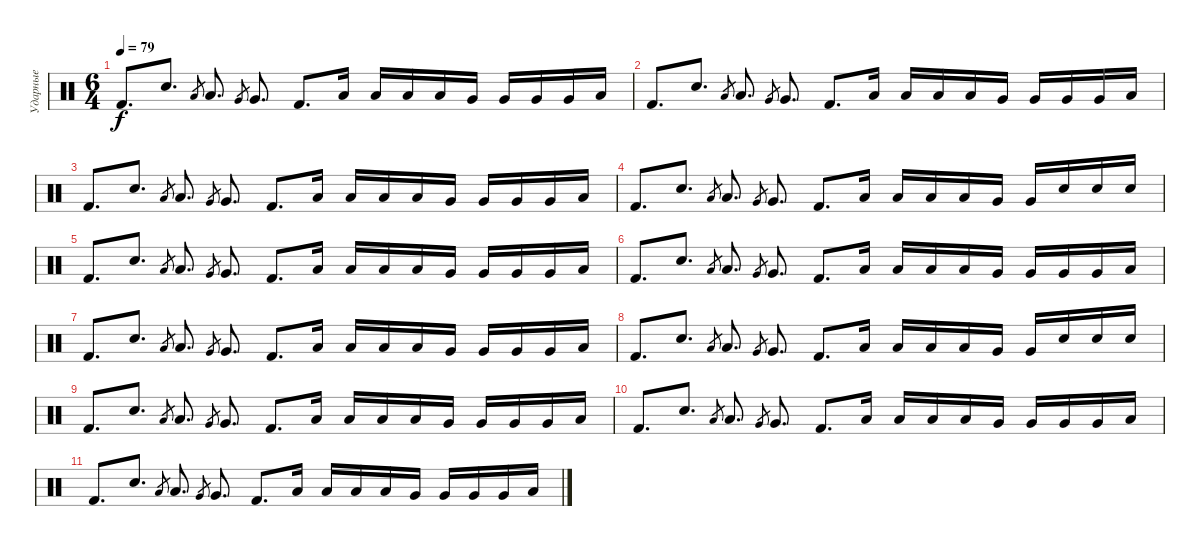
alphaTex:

\track ("Ударные" "Ударные") {instrument percussion}
\staff {score}
\articulation defaults
\ts (6 4)
\tempo 79
\clef neutral
\ks c "Kick (hit) 2".8{d dy f} "Electric Snare (hit)".8{d} "Low Tom (hit)".8{gr} "Low Tom (hit)".8{d} "Very Low Tom (hit)".8{gr} "Very Low Tom (hit)".8{d} "Kick (hit) 2".8{d} "Low Tom (hit)".16 "Low Tom (hit)".16 "Low Tom (hit)".16 "Low Tom (hit)".16 "Very Low Tom (hit)".16 "Very Low Tom (hit)".16 "Very Low Tom (hit)".16 "Very Low Tom (hit)".16 "Low Floor Tom (hit)".16
|
"Kick (hit) 2".8{d} "Electric Snare (hit)".8{d} "Low Tom (hit)".8{gr} "Low Tom (hit)".8{d} "Very Low Tom (hit)".8{gr} "Very Low Tom (hit)".8{d} "Kick (hit) 2".8{d} "Low Tom (hit)".16 "Low Tom (hit)".16 "Low Tom (hit)".16 "Low Tom (hit)".16 "Very Low Tom (hit)".16 "Very Low Tom (hit)".16 "Very Low Tom (hit)".16 "Very Low Tom (hit)".16 "Low Floor Tom (hit)".16 |
"Kick (hit) 2".8{d} "Electric Snare (hit)".8{d} "Low Tom (hit)".8{gr} "Low Tom (hit)".8{d} "Very Low Tom (hit)".8{gr} "Very Low Tom (hit)".8{d} "Kick (hit) 2".8{d} "Low Tom (hit)".16 "Low Tom (hit)".16 "Low Tom (hit)".16 "Low Tom (hit)".16 "Very Low Tom (hit)".16 "Very Low Tom (hit)".16 "Very Low Tom (hit)".16 "Very Low Tom (hit)".16 "Low Floor Tom (hit)".16 |
"Kick (hit) 2".8{d} "Electric Snare (hit)".8{d} "Low Tom (hit)".8{gr} "Low Tom (hit)".8{d} "Very Low Tom (hit)".8{gr} "Very Low Tom (hit)".8{d} "Kick (hit) 2".8{d} "Low Tom (hit)".16 "Low Tom (hit)".16 "Low Tom (hit)".16 "Low Tom (hit)".16 "Very Low Tom (hit)".16 "Very Low Tom (hit)".16 "Electric Snare (hit)".16 "Electric Snare (hit)".16 "Electric Snare (hit)".16 |
"Kick (hit) 2".8{d} "Electric Snare (hit)".8{d} "Low Tom (hit)".8{gr} "Low Tom (hit)".8{d} "Very Low Tom (hit)".8{gr} "Very Low Tom (hit)".8{d} "Kick (hit) 2".8{d} "Low Tom (hit)".16 "Low Tom (hit)".16 "Low Tom (hit)".16 "Low Tom (hit)".16 "Very Low Tom (hit)".16 "Very Low Tom (hit)".16 "Very Low Tom (hit)".16 "Very Low Tom (hit)".16 "Low Floor Tom (hit)".16 |
"Kick (hit) 2".8{d} "Electric Snare (hit)".8{d} "Low Tom (hit)".8{gr} "Low Tom (hit)".8{d} "Very Low Tom (hit)".8{gr} "Very Low Tom (hit)".8{d} "Kick (hit) 2".8{d} "Low Tom (hit)".16 "Low Tom (hit)".16 "Low Tom (hit)".16 "Low Tom (hit)".16 "Very Low Tom (hit)".16 "Very Low Tom (hit)".16 "Very Low Tom (hit)".16 "Very Low Tom (hit)".16 "Low Floor Tom (hit)".16 |
"Kick (hit) 2".8{d} "Electric Snare (hit)".8{d} "Low Tom (hit)".8{gr} "Low Tom (hit)".8{d} "Very Low Tom (hit)".8{gr} "Very Low Tom (hit)".8{d} "Kick (hit) 2".8{d} "Low Tom (hit)".16 "Low Tom (hit)".16 "Low Tom (hit)".16 "Low Tom (hit)".16 "Very Low Tom (hit)".16 "Very Low Tom (hit)".16 "Very Low Tom (hit)".16 "Very Low Tom (hit)".16 "Low Floor Tom (hit)".16 |
"Kick (hit) 2".8{d} "Electric Snare (hit)".8{d} "Low Tom (hit)".8{gr} "Low Tom (hit)".8{d} "Very Low Tom (hit)".8{gr} "Very Low Tom (hit)".8{d} "Kick (hit) 2".8{d} "Low Tom (hit)".16 "Low Tom (hit)".16 "Low Tom (hit)".16 "Low Tom (hit)".16 "Very Low Tom (hit)".16 "Very Low Tom (hit)".16 "Electric Snare (hit)".16 "Electric Snare (hit)".16 "Electric Snare (hit)".16 |
"Kick (hit) 2".8{d} "Electric Snare (hit)".8{d} "Low Tom (hit)".8{gr} "Low Tom (hit)".8{d} "Very Low Tom (hit)".8{gr} "Very Low Tom (hit)".8{d} "Kick (hit) 2".8{d} "Low Tom (hit)".16 "Low Tom (hit)".16 "Low Tom (hit)".16 "Low Tom (hit)".16 "Very Low Tom (hit)".16 "Very Low Tom (hit)".16 "Very Low Tom (hit)".16 "Very Low Tom (hit)".16 "Low Floor Tom (hit)".16 |
"Kick (hit) 2".8{d} "Electric Snare (hit)".8{d} "Low Tom (hit)".8{gr} "Low Tom (hit)".8{d} "Very Low Tom (hit)".8{gr} "Very Low Tom (hit)".8{d} "Kick (hit) 2".8{d} "Low Tom (hit)".16 "Low Tom (hit)".16 "Low Tom (hit)".16 "Low Tom (hit)".16 "Very Low Tom (hit)".16 "Very Low Tom (hit)".16 "Very Low Tom (hit)".16 "Very Low Tom (hit)".16 "Low Floor Tom (hit)".16 |
"Kick (hit) 2".8{d} "Electric Snare (hit)".8{d} "Low Tom (hit)".8{gr} "Low Tom (hit)".8{d} "Very Low Tom (hit)".8{gr} "Very Low Tom (hit)".8{d} "Kick (hit) 2".8{d} "Low Tom (hit)".16 "Low Tom (hit)".16 "Low Tom (hit)".16 "Low Tom (hit)".16 "Very Low Tom (hit)".16 "Very Low Tom (hit)".16 "Very Low Tom (hit)".16 "Very Low Tom (hit)".16 "Low Floor Tom (hit)".16
